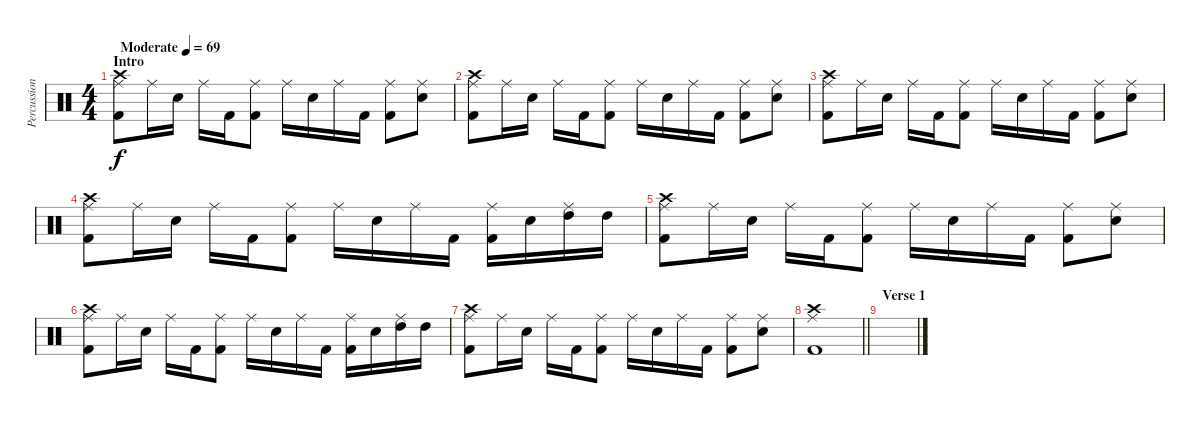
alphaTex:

\track ("Percussion" "Percussion") {instrument percussion}
\staff {score}
\articulation defaults
\ts (4 4)
\section ("" "Intro")
\tempo (69 "Moderate")
\clef neutral
\ks c
("Ride (middle)" "Crash high (hit)" "Kick (hit) 2").8{dy f} "Ride (middle)".16 "Electric Snare (hit)".16 "Ride (middle)".16 "Kick (hit) 2".16 ("Ride (middle)" "Kick (hit) 2").8 "Ride (middle)".16 "Electric Snare (hit)".16 "Ride (middle)".16 "Kick (hit) 2".16 ("Ride (middle)" "Kick (hit) 2").8 ("Ride (middle)" "Electric Snare (hit)").8 |
("Ride (middle)" "Crash high (hit)" "Kick (hit) 2").8 "Ride (middle)".16 "Electric Snare (hit)".16 "Ride (middle)".16 "Kick (hit) 2".16 ("Ride (middle)" "Kick (hit) 2").8 "Ride (middle)".16 "Electric Snare (hit)".16 "Ride (middle)".16 "Kick (hit) 2".16 ("Ride (middle)" "Kick (hit) 2").8 ("Ride (middle)" "Electric Snare (hit)").8 |
("Ride (middle)" "Crash high (hit)" "Kick (hit) 2").8 "Ride (middle)".16 "Electric Snare (hit)".16 "Ride (middle)".16 "Kick (hit) 2".16 ("Ride (middle)" "Kick (hit) 2").8 "Ride (middle)".16 "Electric Snare (hit)".16 "Ride (middle)".16 "Kick (hit) 2".16 ("Ride (middle)" "Kick (hit) 2").8 ("Ride (middle)" "Electric Snare (hit)").8 |
("Ride (middle)" "Crash high (hit)" "Kick (hit) 2").8 "Ride (middle)".16 "Electric Snare (hit)".16 "Ride (middle)".16 "Kick (hit) 2".16 ("Ride (middle)" "Kick (hit) 2").8 "Ride (middle)".16 "Electric Snare (hit)".16 "Ride (middle)".16 "Kick (hit) 2".16 ("Ride (middle)" "Kick (hit) 2").16 "Electric Snare (hit)".16 ("Ride (middle)" "High Tom (hit)").16 "High Tom (hit)".16 |
("Ride (middle)" "Crash high (hit)" "Kick (hit) 2").8 "Ride (middle)".16 "Electric Snare (hit)".16 "Ride (middle)".16 "Kick (hit) 2".16 ("Ride (middle)" "Kick (hit) 2").8 "Ride (middle)".16 "Electric Snare (hit)".16 "Ride (middle)".16 "Kick (hit) 2".16 ("Ride (middle)" "Kick (hit) 2").8 ("Ride (middle)" "Electric Snare (hit)").8 |
("Ride (middle)" "Crash high (hit)" "Kick (hit) 2").8 "Ride (middle)".16 "Electric Snare (hit)".16 "Ride (middle)".16 "Kick (hit) 2".16 ("Ride (middle)" "Kick (hit) 2").8 "Ride (middle)".16 "Electric Snare (hit)".16 "Ride (middle)".16 "Kick (hit) 2".16 ("Ride (middle)" "Kick (hit) 2").16 "Electric Snare (hit)".16 ("Ride (middle)" "High Tom (hit)").16 "High Tom (hit)".16 |
("Ride (middle)" "Crash high (hit)" "Kick (hit) 2").8 "Ride (middle)".16 "Electric Snare (hit)".16 "Ride (middle)".16 "Kick (hit) 2".16 ("Ride (middle)" "Kick (hit) 2").8 "Ride (middle)".16 "Electric Snare (hit)".16 "Ride (middle)".16 "Kick (hit) 2".16 ("Ride (middle)" "Kick (hit) 2").8 ("Ride (middle)" "Electric Snare (hit)").8 |
\barLineRight lightlight
("Ride (middle)" "Crash high (hit)" "Kick (hit) 2").1 |
\section ("" "Verse 1")
